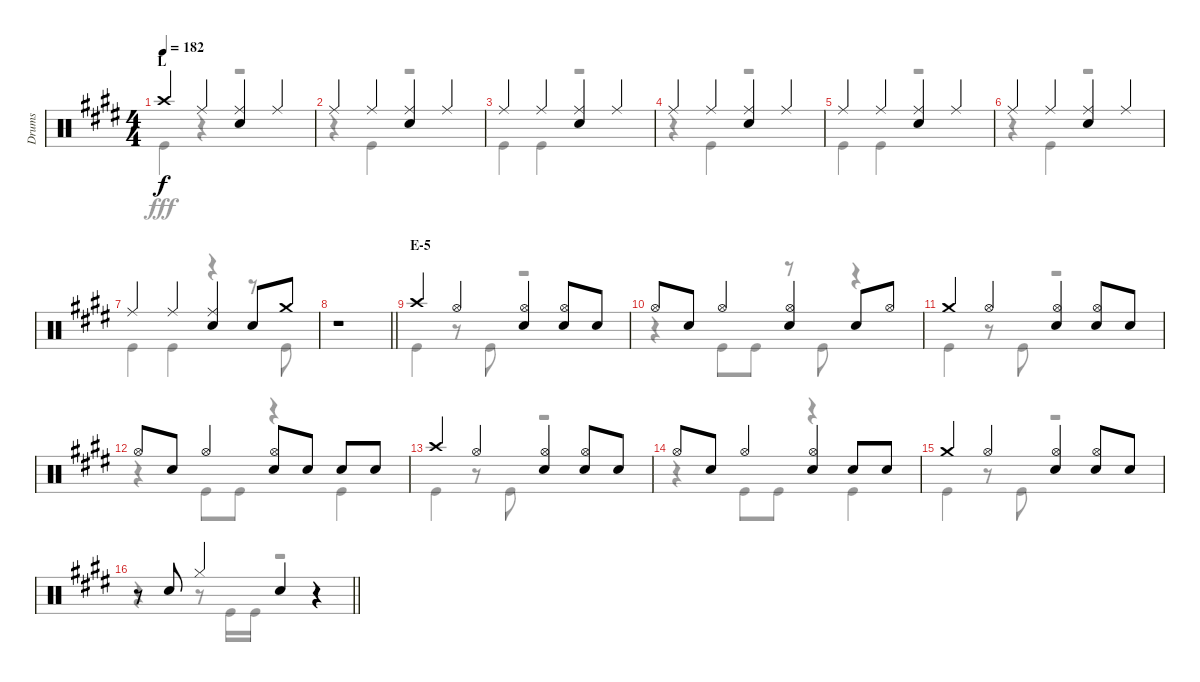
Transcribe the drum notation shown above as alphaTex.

\track ("Drums" "Drums") {instrument percussion}
\staff {score}
\articulation defaults
\voice
\ts (4 4)
\section ("" "L")
\tempo 182
\clef neutral
\ks e "Crash high (hit)".4{dy f} "Ride (middle)".4
("Ride (middle)" "Snare (hit) 2").4 "Ride (middle)".4 |
"Ride (middle)".4 "Ride (middle)".4 ("Ride (middle)" "Snare (hit) 2").4 "Ride (middle)".4 |
"Ride (middle)".4 "Ride (middle)".4 ("Ride (middle)" "Snare (hit) 2").4 "Ride (middle)".4 |
"Ride (middle)".4 "Ride (middle)".4 ("Ride (middle)" "Snare (hit) 2").4 "Ride (middle)".4 |
"Ride (middle)".4 "Ride (middle)".4 ("Ride (middle)" "Snare (hit) 2").4 "Ride (middle)".4 |
"Ride (middle)".4 "Ride (middle)".4 ("Ride (middle)" "Snare (hit) 2").4 "Ride (middle)".4 |
"Ride (middle)".4 "Ride (middle)".4 ("Ride (middle)" "Snare (hit) 2").4 "Snare (hit) 2".8 "Crash medium (hit)".8 |
\barLineRight lightlight
r.1 |
\section ("" "E-5")
"Crash high (hit)".4 "Hi-Hat (open)".4 ("Hi-Hat (open)" "Snare (hit) 2").4 ("Hi-Hat (open)" "Snare (hit) 2").8 "Snare (hit) 2".8 |
"Hi-Hat (open)".8 "Snare (hit) 2".8 "Hi-Hat (open)".4 ("Hi-Hat (open)" "Snare (hit) 2").4 "Snare (hit) 2".8 "Hi-Hat (open)".8 |
"Crash medium (hit)".4 "Hi-Hat (open)".4 ("Hi-Hat (open)" "Snare (hit) 2").4 ("Hi-Hat (open)" "Snare (hit) 2").8 "Snare (hit) 2".8 |
"Hi-Hat (open)".8 "Snare (hit) 2".8 "Hi-Hat (open)".4 ("Hi-Hat (open)" "Snare (hit) 2").8 "Snare (hit) 2".8 "Snare (hit) 2".8 "Snare (hit) 2".8 |
"Crash high (hit)".4 "Hi-Hat (open)".4 ("Hi-Hat (open)" "Snare (hit) 2").4 ("Hi-Hat (open)" "Snare (hit) 2").8 "Snare (hit) 2".8 |
"Hi-Hat (open)".8 "Snare (hit) 2".8 "Hi-Hat (open)".4 ("Hi-Hat (open)" "Snare (hit) 2").4 "Snare (hit) 2".8 "Snare (hit) 2".8 |
"Crash medium (hit)".4 "Hi-Hat (open)".4 ("Hi-Hat (open)" "Snare (hit) 2").4 ("Hi-Hat (open)" "Snare (hit) 2").8 "Snare (hit) 2".8 |
\barLineRight lightlight
r.8 "Snare (hit) 2".8 "Hi-Hat (closed)".4 "Snare (hit) 2".4 r.4
\voice
\clef neutral
\ottava regular
\simile none
\ks e "Kick (hit)".4{dy fff}
r.4 r.2 |
r.4 "Kick (hit)".4 r.2 |
"Kick (hit)".4 "Kick (hit)".4 r.2 |
r.4 "Kick (hit)".4 r.2 |
"Kick (hit)".4 "Kick (hit)".4 r.2 |
r.4 "Kick (hit)".4 r.2 |
"Kick (hit)".4 "Kick (hit)".4 r.4 r.8 "Kick (hit)".8 |
\barLineRight lightlight
r.1 |
"Kick (hit)".4 r.8 "Kick (hit)".8 r.2 |
r.4 "Kick (hit)".8 "Kick (hit)".8 r.8 "Kick (hit)".8 r.4 |
"Kick (hit)".4 r.8 "Kick (hit)".8 r.2 |
r.4 "Kick (hit)".8 "Kick (hit)".8 r.4 "Kick (hit)".4 |
"Kick (hit)".4 r.8 "Kick (hit)".8 r.2 |
r.4 "Kick (hit)".8 "Kick (hit)".8 r.4 "Kick (hit)".4 |
"Kick (hit)".4 r.8 "Kick (hit)".8 r.2 |
\barLineRight lightlight
r.4 r.8 "Kick (hit)".16 "Kick (hit)".16 r.2
